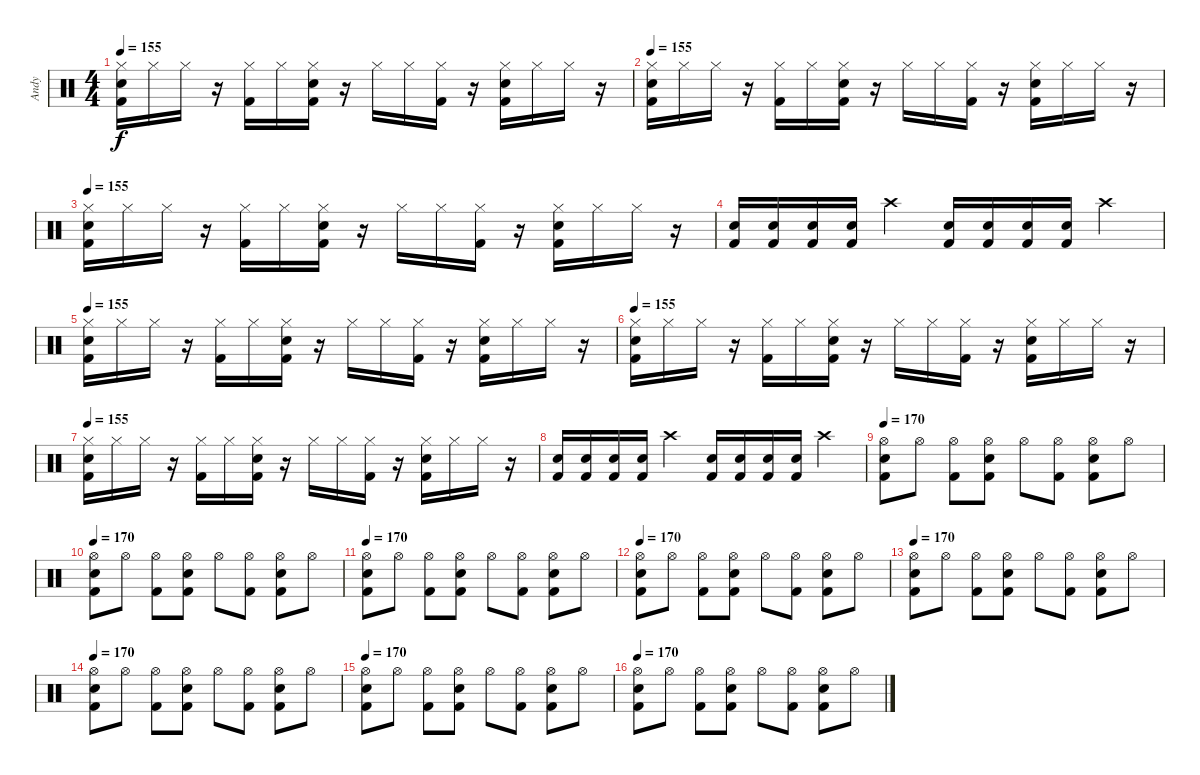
\track ("Andy" "Andy") {instrument percussion}
\staff {score}
\articulation defaults
\ts (4 4)
\tempo 155
\clef neutral
\ks c
("Hi-Hat (closed)" "Electric Snare (hit)" "Kick (hit) 2").16{dy f} "Hi-Hat (closed)".16 "Hi-Hat (closed)".16 r.16 ("Hi-Hat (closed)" "Kick (hit) 2").16 "Hi-Hat (closed)".16 ("Hi-Hat (closed)" "Electric Snare (hit)" "Kick (hit) 2").16 r.16 "Hi-Hat (closed)".16 "Hi-Hat (closed)".16 ("Hi-Hat (closed)" "Kick (hit) 2").16 r.16 ("Hi-Hat (closed)" "Electric Snare (hit)" "Kick (hit) 2").16 "Hi-Hat (closed)".16 "Hi-Hat (closed)".16 r.16 |
\tempo 155
("Hi-Hat (closed)" "Electric Snare (hit)" "Kick (hit) 2").16 "Hi-Hat (closed)".16 "Hi-Hat (closed)".16 r.16 ("Hi-Hat (closed)" "Kick (hit) 2").16 "Hi-Hat (closed)".16 ("Hi-Hat (closed)" "Electric Snare (hit)" "Kick (hit) 2").16 r.16 "Hi-Hat (closed)".16 "Hi-Hat (closed)".16 ("Hi-Hat (closed)" "Kick (hit) 2").16 r.16 ("Hi-Hat (closed)" "Electric Snare (hit)" "Kick (hit) 2").16 "Hi-Hat (closed)".16 "Hi-Hat (closed)".16 r.16 |
\tempo 155
("Hi-Hat (closed)" "Electric Snare (hit)" "Kick (hit) 2").16 "Hi-Hat (closed)".16 "Hi-Hat (closed)".16 r.16 ("Hi-Hat (closed)" "Kick (hit) 2").16 "Hi-Hat (closed)".16 ("Hi-Hat (closed)" "Electric Snare (hit)" "Kick (hit) 2").16 r.16 "Hi-Hat (closed)".16 "Hi-Hat (closed)".16 ("Hi-Hat (closed)" "Kick (hit) 2").16 r.16 ("Hi-Hat (closed)" "Electric Snare (hit)" "Kick (hit) 2").16 "Hi-Hat (closed)".16 "Hi-Hat (closed)".16 r.16 |
("Electric Snare (hit)" "Kick (hit) 2").16 ("Electric Snare (hit)" "Kick (hit) 2").16 ("Electric Snare (hit)" "Kick (hit) 2").16 ("Electric Snare (hit)" "Kick (hit) 2").16 "Crash high (hit)".4 ("Electric Snare (hit)" "Kick (hit) 2").16 ("Electric Snare (hit)" "Kick (hit) 2").16 ("Electric Snare (hit)" "Kick (hit) 2").16 ("Electric Snare (hit)" "Kick (hit) 2").16 "Crash high (hit)".4 |
\tempo 155
("Hi-Hat (closed)" "Electric Snare (hit)" "Kick (hit) 2").16 "Hi-Hat (closed)".16 "Hi-Hat (closed)".16 r.16 ("Hi-Hat (closed)" "Kick (hit) 2").16 "Hi-Hat (closed)".16 ("Hi-Hat (closed)" "Electric Snare (hit)" "Kick (hit) 2").16 r.16 "Hi-Hat (closed)".16 "Hi-Hat (closed)".16 ("Hi-Hat (closed)" "Kick (hit) 2").16 r.16 ("Hi-Hat (closed)" "Electric Snare (hit)" "Kick (hit) 2").16 "Hi-Hat (closed)".16 "Hi-Hat (closed)".16 r.16 |
\tempo 155
("Hi-Hat (closed)" "Electric Snare (hit)" "Kick (hit) 2").16 "Hi-Hat (closed)".16 "Hi-Hat (closed)".16 r.16 ("Hi-Hat (closed)" "Kick (hit) 2").16 "Hi-Hat (closed)".16 ("Hi-Hat (closed)" "Electric Snare (hit)" "Kick (hit) 2").16 r.16 "Hi-Hat (closed)".16 "Hi-Hat (closed)".16 ("Hi-Hat (closed)" "Kick (hit) 2").16 r.16 ("Hi-Hat (closed)" "Electric Snare (hit)" "Kick (hit) 2").16 "Hi-Hat (closed)".16 "Hi-Hat (closed)".16 r.16 |
\tempo 155
("Hi-Hat (closed)" "Electric Snare (hit)" "Kick (hit) 2").16 "Hi-Hat (closed)".16 "Hi-Hat (closed)".16 r.16 ("Hi-Hat (closed)" "Kick (hit) 2").16 "Hi-Hat (closed)".16 ("Hi-Hat (closed)" "Electric Snare (hit)" "Kick (hit) 2").16 r.16 "Hi-Hat (closed)".16 "Hi-Hat (closed)".16 ("Hi-Hat (closed)" "Kick (hit) 2").16 r.16 ("Hi-Hat (closed)" "Electric Snare (hit)" "Kick (hit) 2").16 "Hi-Hat (closed)".16 "Hi-Hat (closed)".16 r.16 |
("Electric Snare (hit)" "Kick (hit) 2").16 ("Electric Snare (hit)" "Kick (hit) 2").16 ("Electric Snare (hit)" "Kick (hit) 2").16 ("Electric Snare (hit)" "Kick (hit) 2").16 "Crash high (hit)".4 ("Electric Snare (hit)" "Kick (hit) 2").16 ("Electric Snare (hit)" "Kick (hit) 2").16 ("Electric Snare (hit)" "Kick (hit) 2").16 ("Electric Snare (hit)" "Kick (hit) 2").16 "Crash high (hit)".4 |
\tempo 170
("Hi-Hat (open)" "Kick (hit) 2" "Electric Snare (hit)").8 "Hi-Hat (open)".8 ("Hi-Hat (open)" "Kick (hit) 2").8 ("Hi-Hat (open)" "Kick (hit) 2" "Electric Snare (hit)").8 "Hi-Hat (open)".8 ("Hi-Hat (open)" "Kick (hit) 2").8 ("Hi-Hat (open)" "Kick (hit) 2" "Electric Snare (hit)").8 "Hi-Hat (open)".8 |
\tempo 170
("Hi-Hat (open)" "Kick (hit) 2" "Electric Snare (hit)").8 "Hi-Hat (open)".8 ("Hi-Hat (open)" "Kick (hit) 2").8 ("Hi-Hat (open)" "Kick (hit) 2" "Electric Snare (hit)").8 "Hi-Hat (open)".8 ("Hi-Hat (open)" "Kick (hit) 2").8 ("Hi-Hat (open)" "Kick (hit) 2" "Electric Snare (hit)").8 "Hi-Hat (open)".8 |
\tempo 170
("Hi-Hat (open)" "Kick (hit) 2" "Electric Snare (hit)").8 "Hi-Hat (open)".8 ("Hi-Hat (open)" "Kick (hit) 2").8 ("Hi-Hat (open)" "Kick (hit) 2" "Electric Snare (hit)").8 "Hi-Hat (open)".8 ("Hi-Hat (open)" "Kick (hit) 2").8 ("Hi-Hat (open)" "Kick (hit) 2" "Electric Snare (hit)").8 "Hi-Hat (open)".8 |
\tempo 170
("Hi-Hat (open)" "Kick (hit) 2" "Electric Snare (hit)").8 "Hi-Hat (open)".8 ("Hi-Hat (open)" "Kick (hit) 2").8 ("Hi-Hat (open)" "Kick (hit) 2" "Electric Snare (hit)").8 "Hi-Hat (open)".8 ("Hi-Hat (open)" "Kick (hit) 2").8 ("Hi-Hat (open)" "Kick (hit) 2" "Electric Snare (hit)").8 "Hi-Hat (open)".8 |
\tempo 170
("Hi-Hat (open)" "Kick (hit) 2" "Electric Snare (hit)").8 "Hi-Hat (open)".8 ("Hi-Hat (open)" "Kick (hit) 2").8 ("Hi-Hat (open)" "Kick (hit) 2" "Electric Snare (hit)").8 "Hi-Hat (open)".8 ("Hi-Hat (open)" "Kick (hit) 2").8 ("Hi-Hat (open)" "Kick (hit) 2" "Electric Snare (hit)").8 "Hi-Hat (open)".8 |
\tempo 170
("Hi-Hat (open)" "Kick (hit) 2" "Electric Snare (hit)").8 "Hi-Hat (open)".8 ("Hi-Hat (open)" "Kick (hit) 2").8 ("Hi-Hat (open)" "Kick (hit) 2" "Electric Snare (hit)").8 "Hi-Hat (open)".8 ("Hi-Hat (open)" "Kick (hit) 2").8 ("Hi-Hat (open)" "Kick (hit) 2" "Electric Snare (hit)").8 "Hi-Hat (open)".8 |
\tempo 170
("Hi-Hat (open)" "Kick (hit) 2" "Electric Snare (hit)").8 "Hi-Hat (open)".8 ("Hi-Hat (open)" "Kick (hit) 2").8 ("Hi-Hat (open)" "Kick (hit) 2" "Electric Snare (hit)").8 "Hi-Hat (open)".8 ("Hi-Hat (open)" "Kick (hit) 2").8 ("Hi-Hat (open)" "Kick (hit) 2" "Electric Snare (hit)").8 "Hi-Hat (open)".8 |
\tempo 170
("Hi-Hat (open)" "Kick (hit) 2" "Electric Snare (hit)").8 "Hi-Hat (open)".8 ("Hi-Hat (open)" "Kick (hit) 2").8 ("Hi-Hat (open)" "Kick (hit) 2" "Electric Snare (hit)").8 "Hi-Hat (open)".8 ("Hi-Hat (open)" "Kick (hit) 2").8 ("Hi-Hat (open)" "Kick (hit) 2" "Electric Snare (hit)").8 "Hi-Hat (open)".8
